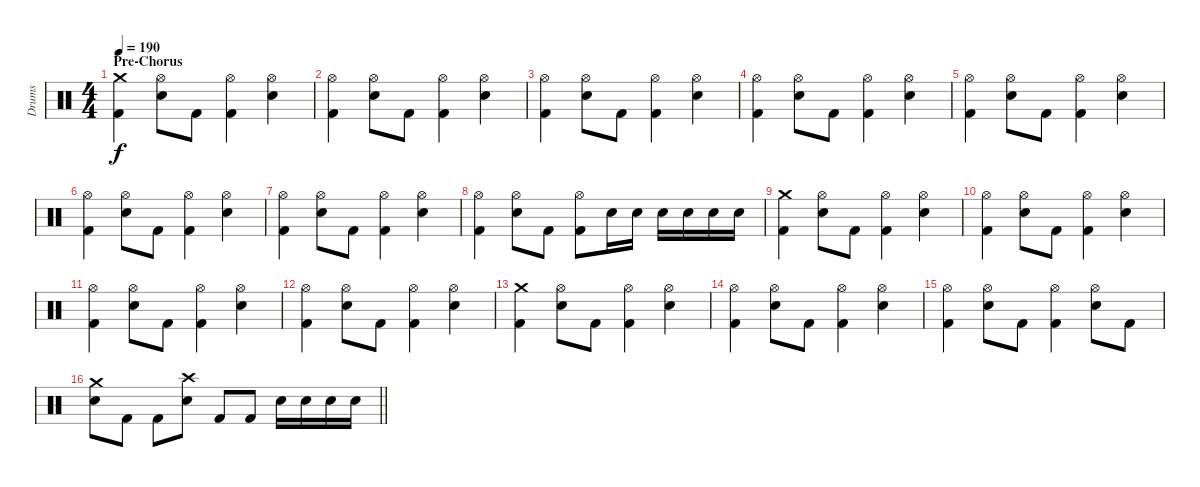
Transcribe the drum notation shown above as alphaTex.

\track ("Drums" "Drums") {instrument percussion}
\staff {score}
\articulation defaults
\ts (4 4)
\section ("" "Pre-Chorus")
\tempo 190
\clef neutral
\ks c
("Crash medium (hit)" "Kick (hit) 2").4{dy f} ("Hi-Hat (open)" "Electric Snare (hit)").8 "Kick (hit) 2".8 ("Hi-Hat (open)" "Kick (hit) 2").4 ("Hi-Hat (open)" "Electric Snare (hit)").4 |
("Hi-Hat (open)" "Kick (hit) 2").4 ("Hi-Hat (open)" "Electric Snare (hit)").8 "Kick (hit) 2".8 ("Hi-Hat (open)" "Kick (hit) 2").4 ("Hi-Hat (open)" "Electric Snare (hit)").4 |
("Hi-Hat (open)" "Kick (hit) 2").4 ("Hi-Hat (open)" "Electric Snare (hit)").8 "Kick (hit) 2".8 ("Hi-Hat (open)" "Kick (hit) 2").4 ("Hi-Hat (open)" "Electric Snare (hit)").4 |
("Hi-Hat (open)" "Kick (hit) 2").4 ("Hi-Hat (open)" "Electric Snare (hit)").8 "Kick (hit) 2".8 ("Hi-Hat (open)" "Kick (hit) 2").4 ("Hi-Hat (open)" "Electric Snare (hit)").4 |
("Hi-Hat (open)" "Kick (hit) 2").4 ("Hi-Hat (open)" "Electric Snare (hit)").8 "Kick (hit) 2".8 ("Hi-Hat (open)" "Kick (hit) 2").4 ("Hi-Hat (open)" "Electric Snare (hit)").4 |
("Hi-Hat (open)" "Kick (hit) 2").4 ("Hi-Hat (open)" "Electric Snare (hit)").8 "Kick (hit) 2".8 ("Hi-Hat (open)" "Kick (hit) 2").4 ("Hi-Hat (open)" "Electric Snare (hit)").4 |
("Hi-Hat (open)" "Kick (hit) 2").4 ("Hi-Hat (open)" "Electric Snare (hit)").8 "Kick (hit) 2".8 ("Hi-Hat (open)" "Kick (hit) 2").4 ("Hi-Hat (open)" "Electric Snare (hit)").4 |
("Hi-Hat (open)" "Kick (hit) 2").4 ("Hi-Hat (open)" "Electric Snare (hit)").8 "Kick (hit) 2".8 ("Hi-Hat (open)" "Kick (hit) 2").8 "Electric Snare (hit)".16 "Electric Snare (hit)".16 "Electric Snare (hit)".16 "Electric Snare (hit)".16 "Electric Snare (hit)".16 "Electric Snare (hit)".16 |
("Crash medium (hit)" "Kick (hit) 2").4 ("Hi-Hat (open)" "Electric Snare (hit)").8 "Kick (hit) 2".8 ("Hi-Hat (open)" "Kick (hit) 2").4 ("Hi-Hat (open)" "Electric Snare (hit)").4 |
("Hi-Hat (open)" "Kick (hit) 2").4 ("Hi-Hat (open)" "Electric Snare (hit)").8 "Kick (hit) 2".8 ("Hi-Hat (open)" "Kick (hit) 2").4 ("Hi-Hat (open)" "Electric Snare (hit)").4 |
("Hi-Hat (open)" "Kick (hit) 2").4 ("Hi-Hat (open)" "Electric Snare (hit)").8 "Kick (hit) 2".8 ("Hi-Hat (open)" "Kick (hit) 2").4 ("Hi-Hat (open)" "Electric Snare (hit)").4 |
("Hi-Hat (open)" "Kick (hit) 2").4 ("Hi-Hat (open)" "Electric Snare (hit)").8 "Kick (hit) 2".8 ("Hi-Hat (open)" "Kick (hit) 2").4 ("Hi-Hat (open)" "Electric Snare (hit)").4 |
("Crash medium (hit)" "Kick (hit) 2").4 ("Hi-Hat (open)" "Electric Snare (hit)").8 "Kick (hit) 2".8 ("Hi-Hat (open)" "Kick (hit) 2").4 ("Hi-Hat (open)" "Electric Snare (hit)").4 |
("Hi-Hat (open)" "Kick (hit) 2").4 ("Hi-Hat (open)" "Electric Snare (hit)").8 "Kick (hit) 2".8 ("Hi-Hat (open)" "Kick (hit) 2").4 ("Hi-Hat (open)" "Electric Snare (hit)").4 |
("Hi-Hat (open)" "Kick (hit) 2").4 ("Hi-Hat (open)" "Electric Snare (hit)").8 "Kick (hit) 2".8 ("Hi-Hat (open)" "Kick (hit) 2").4 ("Hi-Hat (open)" "Electric Snare (hit)").8 "Kick (hit) 2".8 |
\barLineRight lightlight
("Crash medium (hit)" "Electric Snare (hit)").8 "Kick (hit) 2".8 "Kick (hit) 2".8 ("Crash high (hit)" "Electric Snare (hit)").8 "Kick (hit) 2".8 "Kick (hit) 2".8 "Electric Snare (hit)".16 "Electric Snare (hit)".16 "Electric Snare (hit)".16 "Electric Snare (hit)".16
